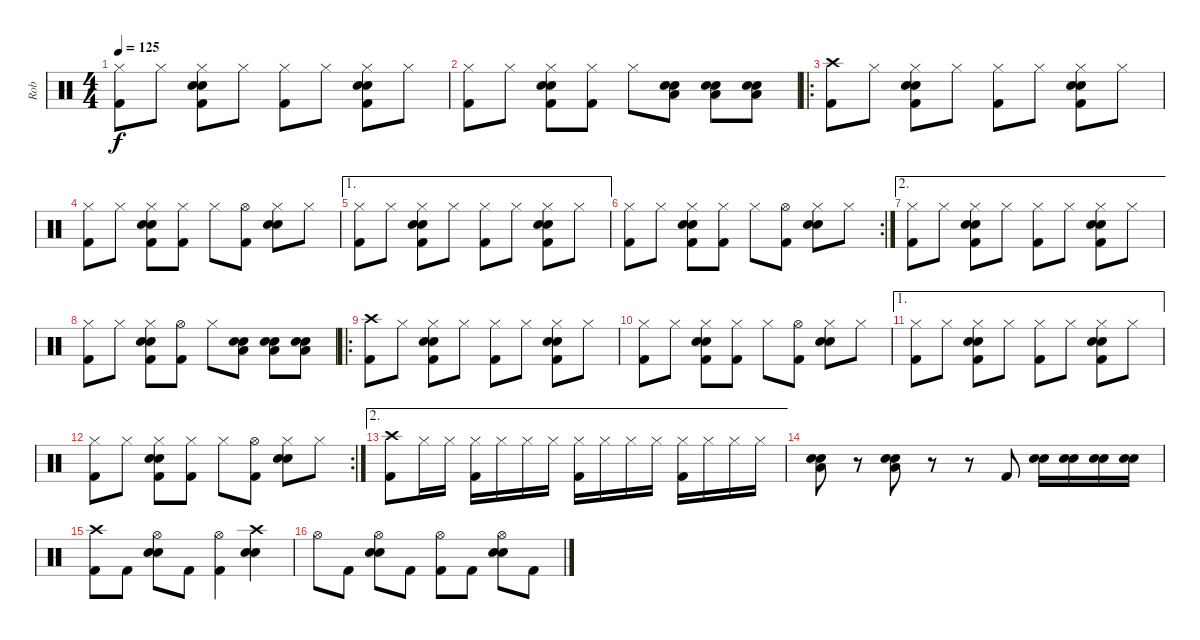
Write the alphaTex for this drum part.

\track ("Rob" "Rob") {instrument percussion}
\staff {score}
\articulation defaults
\ts (4 4)
\tempo 125
\clef neutral
\ks c
("Hi-Hat (closed)" "Kick (hit) 2").8{dy f} "Hi-Hat (closed)".8 ("Hi-Hat (closed)" "Electric Snare (hit)" "Snare (hit) 2" "Kick (hit) 2").8 "Hi-Hat (closed)".8 ("Hi-Hat (closed)" "Kick (hit) 2").8 "Hi-Hat (closed)".8 ("Hi-Hat (closed)" "Electric Snare (hit)" "Snare (hit) 2" "Kick (hit) 2").8 "Hi-Hat (closed)".8 |
("Hi-Hat (closed)" "Kick (hit) 2").8 "Hi-Hat (closed)".8 ("Hi-Hat (closed)" "Electric Snare (hit)" "Snare (hit) 2" "Kick (hit) 2").8 ("Hi-Hat (closed)" "Kick (hit) 2").8 "Hi-Hat (closed)".8 ("Low Floor Tom (hit)" "Electric Snare (hit)" "Snare (hit) 2").8 ("Low Floor Tom (hit)" "Electric Snare (hit)" "Snare (hit) 2").8 ("Low Floor Tom (hit)" "Electric Snare (hit)" "Snare (hit) 2").8 |
\ro
("Crash high (hit)" "Kick (hit) 2").8 "Hi-Hat (closed)".8 ("Hi-Hat (closed)" "Electric Snare (hit)" "Snare (hit) 2" "Kick (hit) 2").8 "Hi-Hat (closed)".8 ("Hi-Hat (closed)" "Kick (hit) 2").8 "Hi-Hat (closed)".8 ("Hi-Hat (closed)" "Electric Snare (hit)" "Snare (hit) 2" "Kick (hit) 2").8 "Hi-Hat (closed)".8 |
("Hi-Hat (closed)" "Kick (hit) 2").8 "Hi-Hat (closed)".8 ("Hi-Hat (closed)" "Electric Snare (hit)" "Snare (hit) 2" "Kick (hit) 2").8 ("Hi-Hat (closed)" "Kick (hit) 2").8 "Hi-Hat (closed)".8 ("Hi-Hat (open)" "Kick (hit) 2").8 ("Hi-Hat (closed)" "Electric Snare (hit)" "Snare (hit) 2").8 "Hi-Hat (closed)".8 |
\ae 1
("Hi-Hat (closed)" "Kick (hit) 2").8 "Hi-Hat (closed)".8 ("Hi-Hat (closed)" "Electric Snare (hit)" "Snare (hit) 2" "Kick (hit) 2").8 "Hi-Hat (closed)".8 ("Hi-Hat (closed)" "Kick (hit) 2").8 "Hi-Hat (closed)".8 ("Hi-Hat (closed)" "Electric Snare (hit)" "Snare (hit) 2" "Kick (hit) 2").8 "Hi-Hat (closed)".8 |
\rc 2
("Hi-Hat (closed)" "Kick (hit) 2").8 "Hi-Hat (closed)".8 ("Hi-Hat (closed)" "Electric Snare (hit)" "Snare (hit) 2" "Kick (hit) 2").8 ("Hi-Hat (closed)" "Kick (hit) 2").8 "Hi-Hat (closed)".8 ("Hi-Hat (open)" "Kick (hit) 2").8 ("Hi-Hat (closed)" "Electric Snare (hit)" "Snare (hit) 2").8 "Hi-Hat (closed)".8 |
\ae 2
("Hi-Hat (closed)" "Kick (hit) 2").8 "Hi-Hat (closed)".8 ("Hi-Hat (closed)" "Electric Snare (hit)" "Snare (hit) 2" "Kick (hit) 2").8 "Hi-Hat (closed)".8 ("Hi-Hat (closed)" "Kick (hit) 2").8 "Hi-Hat (closed)".8 ("Hi-Hat (closed)" "Electric Snare (hit)" "Snare (hit) 2" "Kick (hit) 2").8 "Hi-Hat (closed)".8 |
("Hi-Hat (closed)" "Kick (hit) 2").8 "Hi-Hat (closed)".8 ("Hi-Hat (closed)" "Electric Snare (hit)" "Snare (hit) 2" "Kick (hit) 2").8 ("Hi-Hat (open)" "Kick (hit) 2").8 "Hi-Hat (closed)".8 ("Low Floor Tom (hit)" "Electric Snare (hit)" "Snare (hit) 2").8 ("Low Floor Tom (hit)" "Electric Snare (hit)" "Snare (hit) 2").8 ("Low Floor Tom (hit)" "Electric Snare (hit)" "Snare (hit) 2").8 |
\ro
("Crash high (hit)" "Kick (hit) 2").8 "Hi-Hat (closed)".8 ("Hi-Hat (closed)" "Electric Snare (hit)" "Snare (hit) 2" "Kick (hit) 2").8 "Hi-Hat (closed)".8 ("Hi-Hat (closed)" "Kick (hit) 2").8 "Hi-Hat (closed)".8 ("Hi-Hat (closed)" "Electric Snare (hit)" "Snare (hit) 2" "Kick (hit) 2").8 "Hi-Hat (closed)".8 |
("Hi-Hat (closed)" "Kick (hit) 2").8 "Hi-Hat (closed)".8 ("Hi-Hat (closed)" "Electric Snare (hit)" "Snare (hit) 2" "Kick (hit) 2").8 ("Hi-Hat (closed)" "Kick (hit) 2").8 "Hi-Hat (closed)".8 ("Hi-Hat (open)" "Kick (hit) 2").8 ("Hi-Hat (closed)" "Electric Snare (hit)" "Snare (hit) 2").8 "Hi-Hat (closed)".8 |
\ae 1
("Hi-Hat (closed)" "Kick (hit) 2").8 "Hi-Hat (closed)".8 ("Hi-Hat (closed)" "Electric Snare (hit)" "Snare (hit) 2" "Kick (hit) 2").8 "Hi-Hat (closed)".8 ("Hi-Hat (closed)" "Kick (hit) 2").8 "Hi-Hat (closed)".8 ("Hi-Hat (closed)" "Electric Snare (hit)" "Snare (hit) 2" "Kick (hit) 2").8 "Hi-Hat (closed)".8 |
\rc 2
("Hi-Hat (closed)" "Kick (hit) 2").8 "Hi-Hat (closed)".8 ("Hi-Hat (closed)" "Electric Snare (hit)" "Snare (hit) 2" "Kick (hit) 2").8 ("Hi-Hat (closed)" "Kick (hit) 2").8 "Hi-Hat (closed)".8 ("Hi-Hat (open)" "Kick (hit) 2").8 ("Hi-Hat (closed)" "Electric Snare (hit)" "Snare (hit) 2").8 "Hi-Hat (closed)".8 |
\ae 2
("Crash high (hit)" "Kick (hit) 2").8 "Hi-Hat (closed)".16 "Hi-Hat (closed)".16 ("Hi-Hat (closed)" "Kick (hit) 2").16 "Hi-Hat (closed)".16 "Hi-Hat (closed)".16 "Hi-Hat (closed)".16 ("Hi-Hat (closed)" "Kick (hit) 2").16 "Hi-Hat (closed)".16 "Hi-Hat (closed)".16 "Hi-Hat (closed)".16 ("Hi-Hat (closed)" "Kick (hit) 2").16 "Hi-Hat (closed)".16 "Hi-Hat (closed)".16 "Hi-Hat (closed)".16 |
("Low Floor Tom (hit)" "Electric Snare (hit)" "Snare (hit) 2").8 r.8 ("Low Floor Tom (hit)" "Electric Snare (hit)" "Snare (hit) 2").8 r.8 r.8 "Kick (hit) 2".8 ("Electric Snare (hit)" "Snare (hit) 2").16 ("Electric Snare (hit)" "Snare (hit) 2").16 ("Electric Snare (hit)" "Snare (hit) 2").16 ("Electric Snare (hit)" "Snare (hit) 2").16 |
("Crash high (hit)" "Kick (hit) 2").8 "Kick (hit) 2".8 ("Hi-Hat (open)" "Electric Snare (hit)" "Snare (hit) 2").8 "Kick (hit) 2".8 ("Hi-Hat (open)" "Kick (hit) 2").4 ("Crash high (hit)" "Electric Snare (hit)" "Snare (hit) 2").4 |
"Hi-Hat (open)".8 "Kick (hit) 2".8 ("Hi-Hat (open)" "Electric Snare (hit)" "Snare (hit) 2").8 "Kick (hit) 2".8 ("Hi-Hat (open)" "Kick (hit) 2").8 "Kick (hit) 2".8 ("Hi-Hat (open)" "Electric Snare (hit)" "Snare (hit) 2").8 "Kick (hit) 2".8
